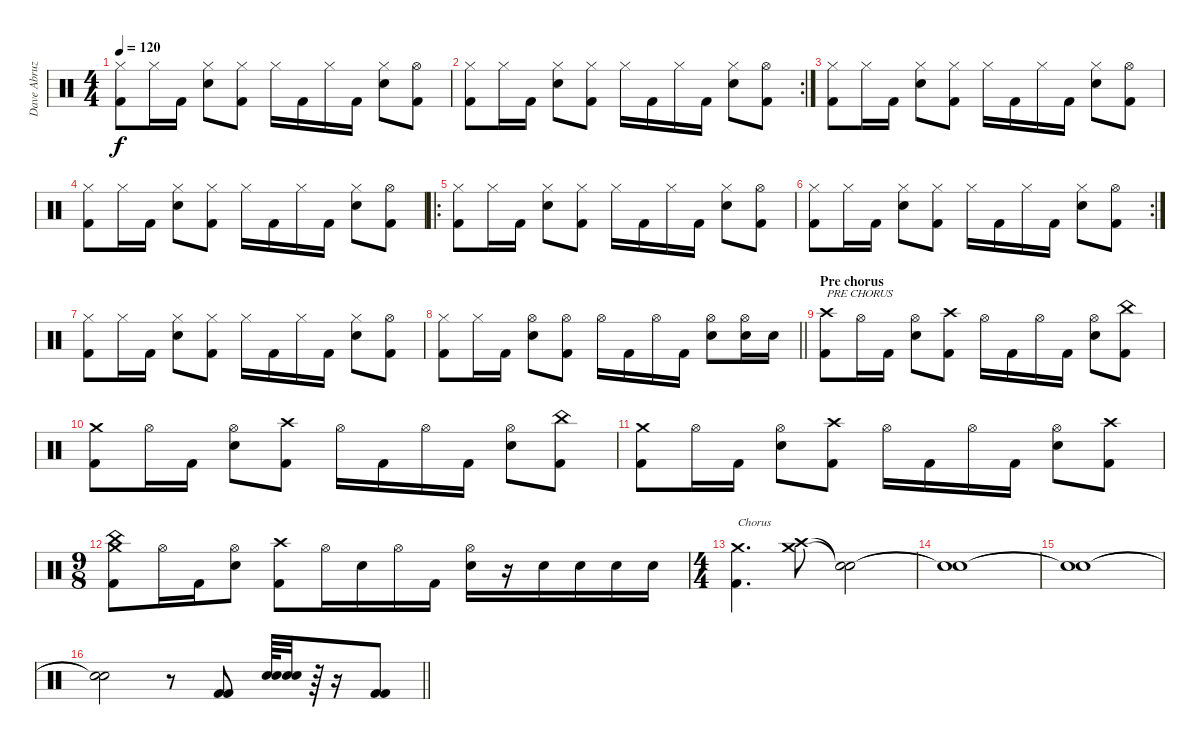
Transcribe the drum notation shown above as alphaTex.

\track ("Dave Abruzzesse" "Dave Abruz") {instrument percussion}
\staff {score}
\articulation defaults
\ts (4 4)
\tempo 120
\clef neutral
\ks c
("Hi-Hat (closed)" "Kick (hit) 2").8{dy f} "Hi-Hat (closed)".16 "Kick (hit) 2".16 ("Hi-Hat (closed)" "Electric Snare (hit)").8 ("Hi-Hat (closed)" "Kick (hit) 2").8 "Hi-Hat (closed)".16 "Kick (hit) 2".16 "Hi-Hat (closed)".16 "Kick (hit) 2".16 ("Hi-Hat (closed)" "Electric Snare (hit)").8 ("Hi-Hat (open)" "Kick (hit) 2").8 |
\rc 2
("Hi-Hat (closed)" "Kick (hit) 2").8 "Hi-Hat (closed)".16 "Kick (hit) 2".16 ("Hi-Hat (closed)" "Electric Snare (hit)").8 ("Hi-Hat (closed)" "Kick (hit) 2").8 "Hi-Hat (closed)".16 "Kick (hit) 2".16 "Hi-Hat (closed)".16 "Kick (hit) 2".16 ("Hi-Hat (closed)" "Electric Snare (hit)").8 ("Hi-Hat (open)" "Kick (hit) 2").8 |
("Hi-Hat (closed)" "Kick (hit) 2").8 "Hi-Hat (closed)".16 "Kick (hit) 2".16 ("Hi-Hat (closed)" "Electric Snare (hit)").8 ("Hi-Hat (closed)" "Kick (hit) 2").8 "Hi-Hat (closed)".16 "Kick (hit) 2".16 "Hi-Hat (closed)".16 "Kick (hit) 2".16 ("Hi-Hat (closed)" "Electric Snare (hit)").8 ("Hi-Hat (open)" "Kick (hit) 2").8 |
("Hi-Hat (closed)" "Kick (hit) 2").8 "Hi-Hat (closed)".16 "Kick (hit) 2".16 ("Hi-Hat (closed)" "Electric Snare (hit)").8 ("Hi-Hat (closed)" "Kick (hit) 2").8 "Hi-Hat (closed)".16 "Kick (hit) 2".16 "Hi-Hat (closed)".16 "Kick (hit) 2".16 ("Hi-Hat (closed)" "Electric Snare (hit)").8 ("Hi-Hat (open)" "Kick (hit) 2").8 |
\ro
("Hi-Hat (closed)" "Kick (hit) 2").8 "Hi-Hat (closed)".16 "Kick (hit) 2".16 ("Hi-Hat (closed)" "Electric Snare (hit)").8 ("Hi-Hat (closed)" "Kick (hit) 2").8 "Hi-Hat (closed)".16 "Kick (hit) 2".16 "Hi-Hat (closed)".16 "Kick (hit) 2".16 ("Hi-Hat (closed)" "Electric Snare (hit)").8 ("Hi-Hat (open)" "Kick (hit) 2").8 |
\rc 2
("Hi-Hat (closed)" "Kick (hit) 2").8 "Hi-Hat (closed)".16 "Kick (hit) 2".16 ("Hi-Hat (closed)" "Electric Snare (hit)").8 ("Hi-Hat (closed)" "Kick (hit) 2").8 "Hi-Hat (closed)".16 "Kick (hit) 2".16 "Hi-Hat (closed)".16 "Kick (hit) 2".16 ("Hi-Hat (closed)" "Electric Snare (hit)").8 ("Hi-Hat (open)" "Kick (hit) 2").8 |
("Hi-Hat (closed)" "Kick (hit) 2").8 "Hi-Hat (closed)".16 "Kick (hit) 2".16 ("Hi-Hat (closed)" "Electric Snare (hit)").8 ("Hi-Hat (closed)" "Kick (hit) 2").8 "Hi-Hat (closed)".16 "Kick (hit) 2".16 "Hi-Hat (closed)".16 "Kick (hit) 2".16 ("Hi-Hat (closed)" "Electric Snare (hit)").8 ("Hi-Hat (open)" "Kick (hit) 2").8 |
\barLineRight lightlight
("Hi-Hat (closed)" "Kick (hit) 2").8 "Hi-Hat (closed)".16 "Kick (hit) 2".16 ("Hi-Hat (open)" "Electric Snare (hit)").8 ("Hi-Hat (open)" "Kick (hit) 2").8 "Hi-Hat (open)".16 "Kick (hit) 2".16 "Hi-Hat (open)".16 "Kick (hit) 2".16 ("Hi-Hat (open)" "Electric Snare (hit)").8 ("Hi-Hat (open)" "Electric Snare (hit)").16 "Electric Snare (hit)".16 |
\section ("" "Pre chorus")
("Crash high (hit)" "Kick (hit) 2").8{txt "PRE CHORUS"} "Hi-Hat (open)".16 "Kick (hit) 2".16 ("Hi-Hat (open)" "Electric Snare (hit)").8 ("Crash high (hit)" "Kick (hit) 2").8 "Hi-Hat (open)".16 "Kick (hit) 2".16 "Hi-Hat (open)".16 "Kick (hit) 2".16 ("Hi-Hat (open)" "Electric Snare (hit)").8 ("China (hit)" "Kick (hit) 2").8 |
("Crash medium (hit)" "Kick (hit) 2").8 "Hi-Hat (open)".16 "Kick (hit) 2".16 ("Hi-Hat (open)" "Electric Snare (hit)").8 ("Crash high (hit)" "Kick (hit) 2").8 "Hi-Hat (open)".16 "Kick (hit) 2".16 "Hi-Hat (open)".16 "Kick (hit) 2".16 ("Hi-Hat (open)" "Electric Snare (hit)").8 ("China (hit)" "Kick (hit) 2").8 |
("Crash medium (hit)" "Kick (hit) 2").8 "Hi-Hat (open)".16 "Kick (hit) 2".16 ("Hi-Hat (open)" "Electric Snare (hit)").8 ("Crash high (hit)" "Kick (hit) 2").8 "Hi-Hat (open)".16 "Kick (hit) 2".16 "Hi-Hat (open)".16 "Kick (hit) 2".16 ("Hi-Hat (open)" "Electric Snare (hit)").8 ("Crash high (hit)" "Kick (hit) 2").8 |
\ts (9 8)
("China (hit)" "Crash medium (hit)" "Kick (hit) 2").8 "Hi-Hat (open)".16 "Kick (hit) 2".16 ("Hi-Hat (open)" "Electric Snare (hit)").8 ("Crash high (hit)" "Kick (hit) 2").8 "Hi-Hat (open)".16 "Electric Snare (hit)".16 "Hi-Hat (open)".16 "Kick (hit) 2".16 ("Hi-Hat (open)" "Electric Snare (hit)").16 r.16 "Electric Snare (hit)".16 "Electric Snare (hit)".16 "Electric Snare (hit)".16 "Electric Snare (hit)".16 |
\ts (4 4)
("Crash medium (hit)" "Kick (hit) 2").4{d txt "Chorus"} ("Crash high (hit)" "Crash medium (hit)").8 ("Snare (hit)"{t} "Snare (hit)"{t}).2 |
("Snare (hit)"{t} "Snare (hit)"{t}).1 |
("Snare (hit)"{t} "Snare (hit)"{t}).1 |
\barLineRight lightlight
("Snare (hit)"{t} "Snare (hit)"{t}).2 r.8 ("Kick (hit) 2" "Kick (hit) 2").8 ("Electric Snare (hit)" "Electric Snare (hit)").64 ("Electric Snare (hit)" "Electric Snare (hit)").32 r.64 r.16 ("Kick (hit) 2" "Kick (hit) 2").8
